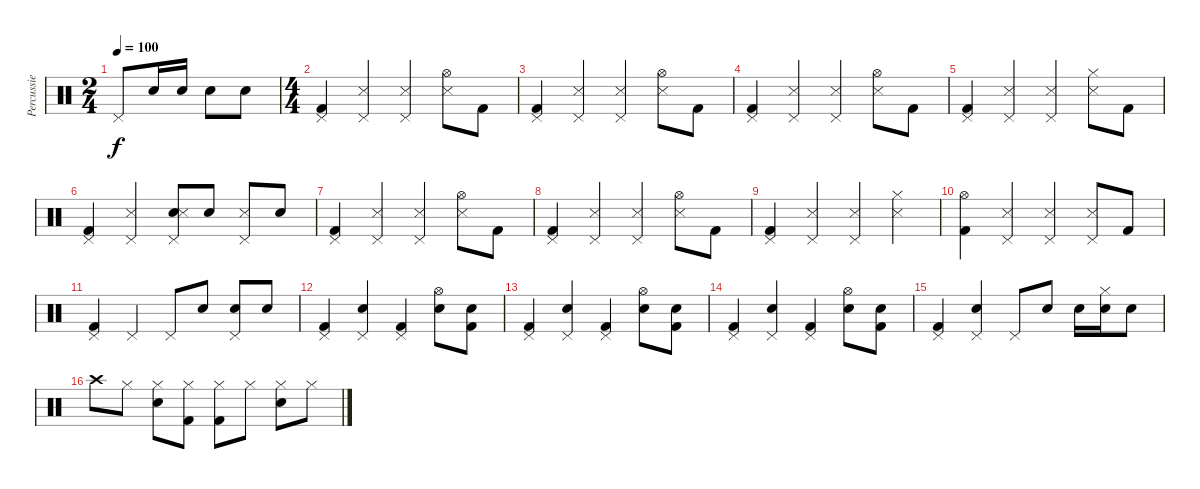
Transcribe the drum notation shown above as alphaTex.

\track ("Percussie" "Percussie") {instrument percussion}
\staff {score}
\articulation defaults
\ts (2 4)
\tempo 100
\clef neutral
\ks c "Pedal Hi-Hat (hit)".8{dy f} "Snare (hit) 2".16 "Snare (hit) 2".16 "Snare (hit) 2".8 "Snare (hit) 2".8
|
\ts (4 4)
("Pedal Hi-Hat (hit)" "Kick (hit) 2").4 ("Pedal Hi-Hat (hit)" "Snare (side stick) 3").4 ("Pedal Hi-Hat (hit)" "Snare (side stick) 3").4 ("Hi-Hat (open)" "Snare (side stick) 3").8 "Kick (hit) 2".8 |
("Pedal Hi-Hat (hit)" "Kick (hit) 2").4 ("Pedal Hi-Hat (hit)" "Snare (side stick) 3").4 ("Pedal Hi-Hat (hit)" "Snare (side stick) 3").4 ("Hi-Hat (open)" "Snare (side stick) 3").8 "Kick (hit) 2".8 |
("Pedal Hi-Hat (hit)" "Kick (hit) 2").4 ("Pedal Hi-Hat (hit)" "Snare (side stick) 3").4 ("Pedal Hi-Hat (hit)" "Snare (side stick) 3").4 ("Hi-Hat (open)" "Snare (side stick) 3").8 "Kick (hit) 2".8 |
("Pedal Hi-Hat (hit)" "Kick (hit) 2").4 ("Pedal Hi-Hat (hit)" "Snare (side stick) 3").4 ("Pedal Hi-Hat (hit)" "Snare (side stick) 3").4 ("Hi-Hat (closed)" "Snare (side stick) 3").8 "Kick (hit) 2".8 |
("Pedal Hi-Hat (hit)" "Kick (hit) 2").4 ("Pedal Hi-Hat (hit)" "Snare (side stick) 3").4 ("Pedal Hi-Hat (hit)" "Snare (hit) 2" "Snare (side stick) 3").8 "Snare (hit) 2".8 ("Pedal Hi-Hat (hit)" "Snare (side stick) 3").8 "Snare (hit) 2".8 |
("Pedal Hi-Hat (hit)" "Kick (hit) 2").4 ("Pedal Hi-Hat (hit)" "Snare (side stick) 3").4 ("Pedal Hi-Hat (hit)" "Snare (side stick) 3").4 ("Hi-Hat (open)" "Snare (side stick) 3").8 "Kick (hit) 2".8 |
("Pedal Hi-Hat (hit)" "Kick (hit) 2").4 ("Pedal Hi-Hat (hit)" "Snare (side stick) 3").4 ("Pedal Hi-Hat (hit)" "Snare (side stick) 3").4 ("Hi-Hat (open)" "Snare (side stick) 3").8 "Kick (hit) 2".8 |
("Pedal Hi-Hat (hit)" "Kick (hit) 2").4 ("Pedal Hi-Hat (hit)" "Snare (side stick) 3").4 ("Pedal Hi-Hat (hit)" "Snare (side stick) 3").4 ("Hi-Hat (closed)" "Snare (side stick) 3").4 |
("Hi-Hat (open)" "Kick (hit) 2").4 ("Pedal Hi-Hat (hit)" "Snare (side stick) 3").4 ("Pedal Hi-Hat (hit)" "Snare (side stick) 3").4 ("Pedal Hi-Hat (hit)" "Snare (side stick) 3").8 "Kick (hit) 2".8 |
("Pedal Hi-Hat (hit)" "Kick (hit) 2").4 "Pedal Hi-Hat (hit)".4 "Pedal Hi-Hat (hit)".8 "Snare (hit) 2".8 ("Pedal Hi-Hat (hit)" "Snare (hit) 2").8 "Snare (hit) 2".8 |
("Pedal Hi-Hat (hit)" "Kick (hit) 2").4 ("Pedal Hi-Hat (hit)" "Snare (hit) 2").4 ("Pedal Hi-Hat (hit)" "Kick (hit) 2").4 ("Hi-Hat (open)" "Snare (hit) 2").8 ("Snare (hit) 2" "Kick (hit) 2").8 |
("Pedal Hi-Hat (hit)" "Kick (hit) 2").4 ("Pedal Hi-Hat (hit)" "Snare (hit) 2").4 ("Pedal Hi-Hat (hit)" "Kick (hit) 2").4 ("Hi-Hat (open)" "Snare (hit) 2").8 ("Snare (hit) 2" "Kick (hit) 2").8 |
("Pedal Hi-Hat (hit)" "Kick (hit) 2").4 ("Pedal Hi-Hat (hit)" "Snare (hit) 2").4 ("Pedal Hi-Hat (hit)" "Kick (hit) 2").4 ("Hi-Hat (open)" "Snare (hit) 2").8 ("Snare (hit) 2" "Kick (hit) 2").8 |
("Pedal Hi-Hat (hit)" "Kick (hit) 2").4 ("Pedal Hi-Hat (hit)" "Snare (hit) 2").4 "Pedal Hi-Hat (hit)".8 "Snare (hit) 2".8 "Snare (hit) 2".16 ("Hi-Hat (closed)" "Snare (hit) 2").16 "Snare (hit) 2".8 |
"Crash high (hit)".8 "Hi-Hat (closed)".8 ("Hi-Hat (closed)" "Snare (hit) 2").8 ("Hi-Hat (closed)" "Kick (hit) 2").8 ("Hi-Hat (closed)" "Kick (hit) 2").8 "Hi-Hat (closed)".8 ("Hi-Hat (closed)" "Snare (hit) 2").8 "Hi-Hat (closed)".8
